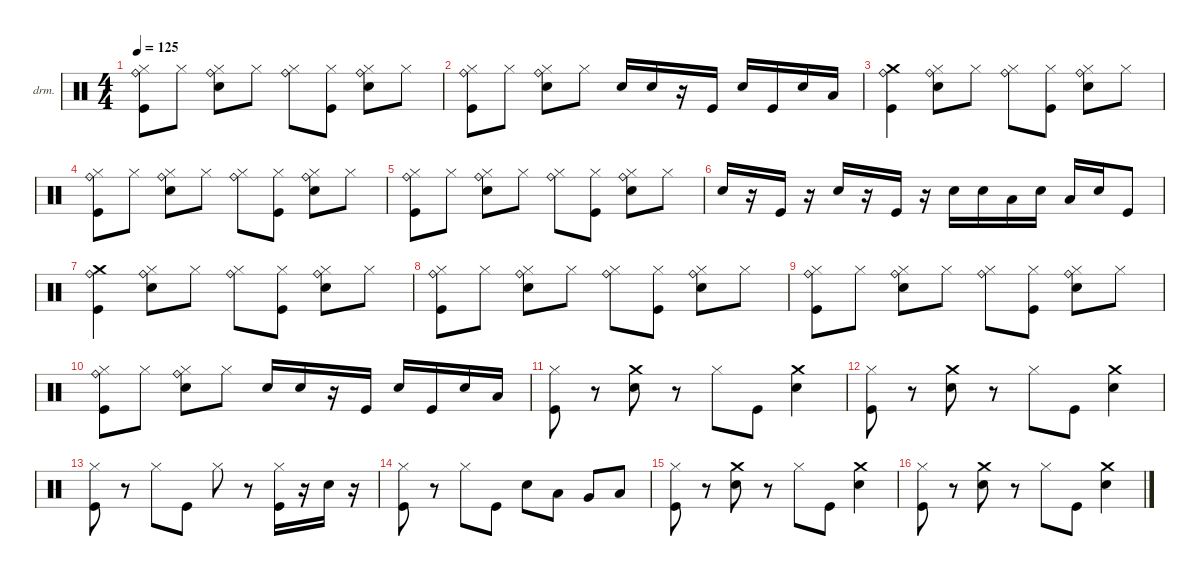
\defaultSystemsLayout 4
\hideDynamics
\bracketExtendMode nobrackets
\firstSystemTrackNameOrientation horizontal
\otherSystemsTrackNameOrientation horizontal
\track ("Drum" "drm.") {instrument percussion}
\staff {score}
\articulation defaults
\ts (4 4)
\tempo 125
\clef neutral
\ks c
("Kick (hit)" "Hi-Hat (closed)" "Ride (bell)").8{dy f} "Hi-Hat (closed)".8 ("Snare (hit) 2" "Hi-Hat (closed)" "Ride (bell)").8 "Hi-Hat (closed)".8 ("Hi-Hat (closed)" "Ride (bell)").8 ("Kick (hit)" "Hi-Hat (closed)").8 ("Snare (hit) 2" "Hi-Hat (closed)" "Ride (bell)").8 "Hi-Hat (closed)".8 |
("Kick (hit)" "Hi-Hat (closed)" "Ride (bell)").8 "Hi-Hat (closed)".8 ("Snare (hit) 2" "Hi-Hat (closed)" "Ride (bell)").8 "Hi-Hat (closed)".8 "Snare (hit) 2".16 "Snare (hit) 2".16 r.16 "Kick (hit)".16 "Snare (hit) 2".16 "Kick (hit)".16 "Snare (hit) 2".16 "Low Tom (hit)".16 |
("Kick (hit)" "Crash medium (hit)" "Ride (bell)").4 ("Snare (hit) 2" "Hi-Hat (closed)" "Ride (bell)").8 "Hi-Hat (closed)".8 ("Hi-Hat (closed)" "Ride (bell)").8 ("Kick (hit)" "Hi-Hat (closed)").8 ("Snare (hit) 2" "Hi-Hat (closed)" "Ride (bell)").8 "Hi-Hat (closed)".8 |
("Kick (hit)" "Hi-Hat (closed)" "Ride (bell)").8 "Hi-Hat (closed)".8 ("Snare (hit) 2" "Hi-Hat (closed)" "Ride (bell)").8 "Hi-Hat (closed)".8 ("Hi-Hat (closed)" "Ride (bell)").8 ("Kick (hit)" "Hi-Hat (closed)").8 ("Snare (hit) 2" "Hi-Hat (closed)" "Ride (bell)").8 "Hi-Hat (closed)".8 |
("Kick (hit)" "Hi-Hat (closed)" "Ride (bell)").8 "Hi-Hat (closed)".8 ("Snare (hit) 2" "Hi-Hat (closed)" "Ride (bell)").8 "Hi-Hat (closed)".8 ("Hi-Hat (closed)" "Ride (bell)").8 ("Kick (hit)" "Hi-Hat (closed)").8 ("Snare (hit) 2" "Hi-Hat (closed)" "Ride (bell)").8 "Hi-Hat (closed)".8 |
"Snare (hit) 2".16 r.16 "Kick (hit)".16 r.16 "Snare (hit) 2".16 r.16 "Kick (hit)".16 r.16 "Snare (hit) 2".16 "Snare (hit) 2".16 "Low Tom (hit)".16 "Snare (hit) 2".16 "Low Tom (hit)".16 "Snare (hit) 2".16 "Kick (hit)".8 |
("Kick (hit)" "Crash medium (hit)" "Ride (bell)").4 ("Snare (hit) 2" "Hi-Hat (closed)" "Ride (bell)").8 "Hi-Hat (closed)".8 ("Hi-Hat (closed)" "Ride (bell)").8 ("Kick (hit)" "Hi-Hat (closed)").8 ("Snare (hit) 2" "Hi-Hat (closed)" "Ride (bell)").8 "Hi-Hat (closed)".8 |
("Kick (hit)" "Hi-Hat (closed)" "Ride (bell)").8 "Hi-Hat (closed)".8 ("Snare (hit) 2" "Hi-Hat (closed)" "Ride (bell)").8 "Hi-Hat (closed)".8 ("Hi-Hat (closed)" "Ride (bell)").8 ("Kick (hit)" "Hi-Hat (closed)").8 ("Snare (hit) 2" "Hi-Hat (closed)" "Ride (bell)").8 "Hi-Hat (closed)".8 |
("Kick (hit)" "Hi-Hat (closed)" "Ride (bell)").8 "Hi-Hat (closed)".8 ("Snare (hit) 2" "Hi-Hat (closed)" "Ride (bell)").8 "Hi-Hat (closed)".8 ("Hi-Hat (closed)" "Ride (bell)").8 ("Kick (hit)" "Hi-Hat (closed)").8 ("Snare (hit) 2" "Hi-Hat (closed)" "Ride (bell)").8 "Hi-Hat (closed)".8 |
("Kick (hit)" "Hi-Hat (closed)" "Ride (bell)").8 "Hi-Hat (closed)".8 ("Snare (hit) 2" "Hi-Hat (closed)" "Ride (bell)").8 "Hi-Hat (closed)".8 "Snare (hit) 2".16 "Snare (hit) 2".16 r.16 "Kick (hit)".16 "Snare (hit) 2".16 "Kick (hit)".16 "Snare (hit) 2".16 "Low Tom (hit)".16 |
("Kick (hit)" "Hi-Hat (closed)").8 r.8 ("Snare (hit) 2" "Crash medium (hit)").8 r.8 "Hi-Hat (closed)".8 "Kick (hit)".8 ("Snare (hit) 2" "Crash medium (hit)").4 |
("Kick (hit)" "Hi-Hat (closed)").8 r.8 ("Snare (hit) 2" "Crash medium (hit)").8 r.8 "Hi-Hat (closed)".8 "Kick (hit)".8 ("Snare (hit) 2" "Crash medium (hit)").4 |
("Kick (hit)" "Hi-Hat (closed)").8 r.8 "Hi-Hat (closed)".8 "Kick (hit)".8 "Hi-Hat (closed)".8 r.8 ("Kick (hit)" "Hi-Hat (closed)").16 r.16 "Snare (hit) 2".16 r.16 |
("Kick (hit)" "Hi-Hat (closed)").8 r.8 "Hi-Hat (closed)".8 "Kick (hit)".8 "Snare (hit) 2".8 "Low Tom (hit)".8 "Very Low Tom (hit)".8 "Low Floor Tom (hit)".8 |
("Kick (hit)" "Hi-Hat (closed)").8 r.8 ("Snare (hit) 2" "Crash medium (hit)").8 r.8 "Hi-Hat (closed)".8 "Kick (hit)".8 ("Snare (hit) 2" "Crash medium (hit)").4 |
("Kick (hit)" "Hi-Hat (closed)").8 r.8 ("Snare (hit) 2" "Crash medium (hit)").8 r.8 "Hi-Hat (closed)".8 "Kick (hit)".8 ("Snare (hit) 2" "Crash medium (hit)").4
